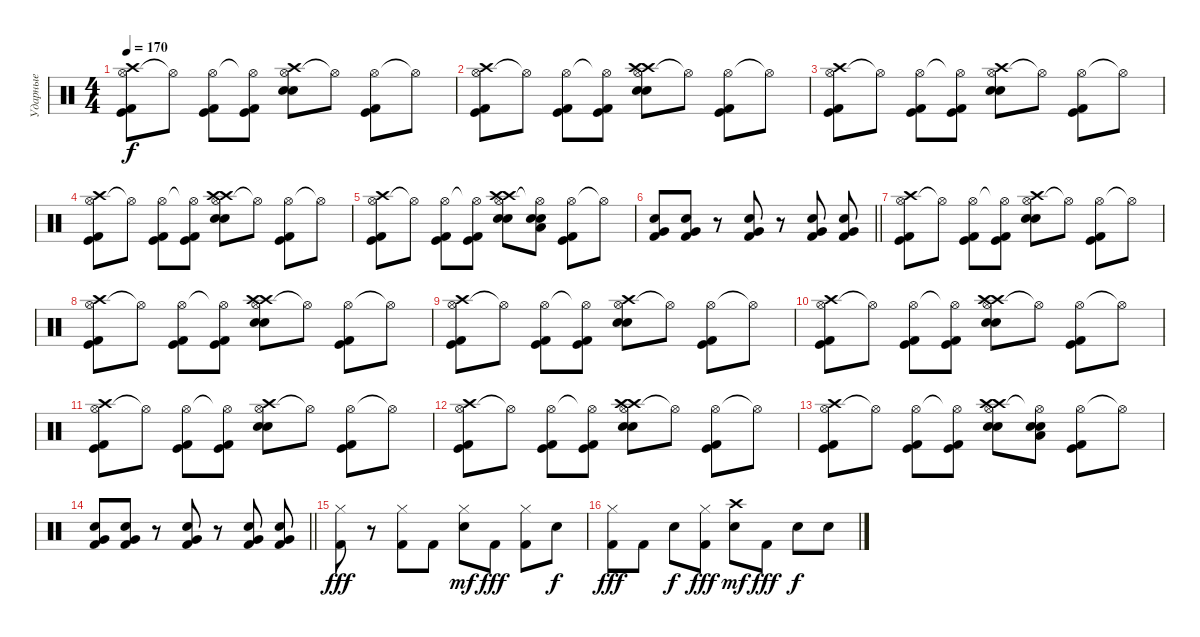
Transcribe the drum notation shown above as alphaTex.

\track ("Ударные" "Ударные") {instrument percussion}
\staff {score}
\articulation defaults
\ts (4 4)
\tempo 170
\clef neutral
\ks c
("Hi-Hat (open)" "Kick (hit)" "Kick (hit) 2" "Crash high (hit)").8{dy f} "Hi-Hat (open)"{t}.8 ("Hi-Hat (open)" "Kick (hit)" "Kick (hit) 2").8 ("Hi-Hat (open)"{t} "Kick (hit)" "Kick (hit) 2").8 ("Hi-Hat (open)" "Electric Snare (hit)" "Electric Snare (hit)" "Crash high (hit)").8 "Hi-Hat (open)"{t}.8 ("Hi-Hat (open)" "Kick (hit)" "Kick (hit) 2").8 "Hi-Hat (open)"{t}.8 |
("Hi-Hat (open)" "Kick (hit)" "Kick (hit) 2" "Crash high (hit)").8 "Hi-Hat (open)"{t}.8 ("Hi-Hat (open)" "Kick (hit)" "Kick (hit) 2").8 ("Hi-Hat (open)"{t} "Kick (hit)" "Kick (hit) 2").8 ("Hi-Hat (open)" "Electric Snare (hit)" "Electric Snare (hit)" "Crash high (hit)" "Crash high (hit)").8 "Hi-Hat (open)"{t}.8 ("Hi-Hat (open)" "Kick (hit)" "Kick (hit) 2").8 "Hi-Hat (open)"{t}.8 |
("Hi-Hat (open)" "Kick (hit)" "Kick (hit) 2" "Crash high (hit)").8 "Hi-Hat (open)"{t}.8 ("Hi-Hat (open)" "Kick (hit)" "Kick (hit) 2").8 ("Hi-Hat (open)"{t} "Kick (hit)" "Kick (hit) 2").8 ("Hi-Hat (open)" "Electric Snare (hit)" "Electric Snare (hit)" "Crash high (hit)").8 "Hi-Hat (open)"{t}.8 ("Hi-Hat (open)" "Kick (hit)" "Kick (hit) 2").8 "Hi-Hat (open)"{t}.8 |
("Hi-Hat (open)" "Kick (hit)" "Kick (hit) 2" "Crash high (hit)").8 "Hi-Hat (open)"{t}.8 ("Hi-Hat (open)" "Kick (hit)" "Kick (hit) 2").8 ("Hi-Hat (open)"{t} "Kick (hit)" "Kick (hit) 2").8 ("Hi-Hat (open)" "Electric Snare (hit)" "Electric Snare (hit)" "Crash high (hit)" "Crash high (hit)").8 "Hi-Hat (open)"{t}.8 ("Hi-Hat (open)" "Kick (hit)" "Kick (hit) 2").8 "Hi-Hat (open)"{t}.8 |
("Hi-Hat (open)" "Kick (hit)" "Kick (hit) 2" "Crash high (hit)").8 "Hi-Hat (open)"{t}.8 ("Hi-Hat (open)" "Kick (hit)" "Kick (hit) 2").8 ("Hi-Hat (open)"{t} "Kick (hit)" "Kick (hit) 2").8 ("Hi-Hat (open)" "Electric Snare (hit)" "Electric Snare (hit)" "Crash high (hit)" "Crash high (hit)").8 ("Hi-Hat (open)"{t} "Electric Snare (hit)" "Electric Snare (hit)" "Low Tom (hit)").8 ("Hi-Hat (open)" "Kick (hit)" "Kick (hit) 2").8 "Hi-Hat (open)"{t}.8 |
\barLineRight lightlight
("Kick (hit) 2" "Electric Snare (hit)" "Very Low Tom (hit)").8 ("Kick (hit) 2" "Electric Snare (hit)" "Very Low Tom (hit)").8 r.8 ("Kick (hit) 2" "Electric Snare (hit)" "Very Low Tom (hit)").8 r.8 ("Kick (hit) 2" "Electric Snare (hit)" "Very Low Tom (hit)").8 ("Kick (hit) 2" "Electric Snare (hit)" "Very Low Tom (hit)").8 |
("Hi-Hat (open)" "Kick (hit)" "Kick (hit) 2" "Crash high (hit)").8 "Hi-Hat (open)"{t}.8 ("Hi-Hat (open)" "Kick (hit)" "Kick (hit) 2").8 ("Hi-Hat (open)"{t} "Kick (hit)" "Kick (hit) 2").8 ("Hi-Hat (open)" "Electric Snare (hit)" "Electric Snare (hit)" "Crash high (hit)").8 "Hi-Hat (open)"{t}.8 ("Hi-Hat (open)" "Kick (hit)" "Kick (hit) 2").8 "Hi-Hat (open)"{t}.8 |
("Hi-Hat (open)" "Kick (hit)" "Kick (hit) 2" "Crash high (hit)").8 "Hi-Hat (open)"{t}.8 ("Hi-Hat (open)" "Kick (hit)" "Kick (hit) 2").8 ("Hi-Hat (open)"{t} "Kick (hit)" "Kick (hit) 2").8 ("Hi-Hat (open)" "Electric Snare (hit)" "Electric Snare (hit)" "Crash high (hit)" "Crash high (hit)").8 "Hi-Hat (open)"{t}.8 ("Hi-Hat (open)" "Kick (hit)" "Kick (hit) 2").8 "Hi-Hat (open)"{t}.8 |
("Hi-Hat (open)" "Kick (hit)" "Kick (hit) 2" "Crash high (hit)").8 "Hi-Hat (open)"{t}.8 ("Hi-Hat (open)" "Kick (hit)" "Kick (hit) 2").8 ("Hi-Hat (open)"{t} "Kick (hit)" "Kick (hit) 2").8 ("Hi-Hat (open)" "Electric Snare (hit)" "Electric Snare (hit)" "Crash high (hit)").8 "Hi-Hat (open)"{t}.8 ("Hi-Hat (open)" "Kick (hit)" "Kick (hit) 2").8 "Hi-Hat (open)"{t}.8 |
("Hi-Hat (open)" "Kick (hit)" "Kick (hit) 2" "Crash high (hit)").8 "Hi-Hat (open)"{t}.8 ("Hi-Hat (open)" "Kick (hit)" "Kick (hit) 2").8 ("Hi-Hat (open)"{t} "Kick (hit)" "Kick (hit) 2").8 ("Hi-Hat (open)" "Electric Snare (hit)" "Electric Snare (hit)" "Crash high (hit)" "Crash high (hit)").8 "Hi-Hat (open)"{t}.8 ("Hi-Hat (open)" "Kick (hit)" "Kick (hit) 2").8 "Hi-Hat (open)"{t}.8 |
("Hi-Hat (open)" "Kick (hit)" "Kick (hit) 2" "Crash high (hit)").8 "Hi-Hat (open)"{t}.8 ("Hi-Hat (open)" "Kick (hit)" "Kick (hit) 2").8 ("Hi-Hat (open)"{t} "Kick (hit)" "Kick (hit) 2").8 ("Hi-Hat (open)" "Electric Snare (hit)" "Electric Snare (hit)" "Crash high (hit)").8 "Hi-Hat (open)"{t}.8 ("Hi-Hat (open)" "Kick (hit)" "Kick (hit) 2").8 "Hi-Hat (open)"{t}.8 |
("Hi-Hat (open)" "Kick (hit)" "Kick (hit) 2" "Crash high (hit)").8 "Hi-Hat (open)"{t}.8 ("Hi-Hat (open)" "Kick (hit)" "Kick (hit) 2").8 ("Hi-Hat (open)"{t} "Kick (hit)" "Kick (hit) 2").8 ("Hi-Hat (open)" "Electric Snare (hit)" "Electric Snare (hit)" "Crash high (hit)" "Crash high (hit)").8 "Hi-Hat (open)"{t}.8 ("Hi-Hat (open)" "Kick (hit)" "Kick (hit) 2").8 "Hi-Hat (open)"{t}.8 |
("Hi-Hat (open)" "Kick (hit)" "Kick (hit) 2" "Crash high (hit)").8 "Hi-Hat (open)"{t}.8 ("Hi-Hat (open)" "Kick (hit)" "Kick (hit) 2").8 ("Hi-Hat (open)"{t} "Kick (hit)" "Kick (hit) 2").8 ("Hi-Hat (open)" "Electric Snare (hit)" "Electric Snare (hit)" "Crash high (hit)" "Crash high (hit)").8 ("Hi-Hat (open)"{t} "Electric Snare (hit)" "Electric Snare (hit)" "Low Tom (hit)").8 ("Hi-Hat (open)" "Kick (hit)" "Kick (hit) 2").8 "Hi-Hat (open)"{t}.8 |
\barLineRight lightlight
("Kick (hit) 2" "Electric Snare (hit)" "Very Low Tom (hit)").8 ("Kick (hit) 2" "Electric Snare (hit)" "Very Low Tom (hit)").8 r.8 ("Kick (hit) 2" "Electric Snare (hit)" "Very Low Tom (hit)").8 r.8 ("Kick (hit) 2" "Electric Snare (hit)" "Very Low Tom (hit)").8 ("Kick (hit) 2" "Electric Snare (hit)" "Very Low Tom (hit)").8 |
("Hi-Hat (closed)" "Kick (hit) 2").8{dy fff} r.8 ("Hi-Hat (closed)" "Kick (hit) 2").8 "Kick (hit) 2".8 ("Hi-Hat (closed)" "Electric Snare (hit)").8{dy mf} "Kick (hit) 2".8{dy fff} ("Hi-Hat (closed)" "Kick (hit) 2").8 "Electric Snare (hit)".8{dy f} |
("Hi-Hat (closed)" "Kick (hit) 2").8{dy fff} "Kick (hit) 2".8 "Electric Snare (hit)".8{dy f} ("Hi-Hat (closed)" "Kick (hit) 2").8{dy fff} ("Crash high (hit)" "Electric Snare (hit)").8{dy mf} "Kick (hit) 2".8{dy fff} "Electric Snare (hit)".8{dy f} "Electric Snare (hit)".8
